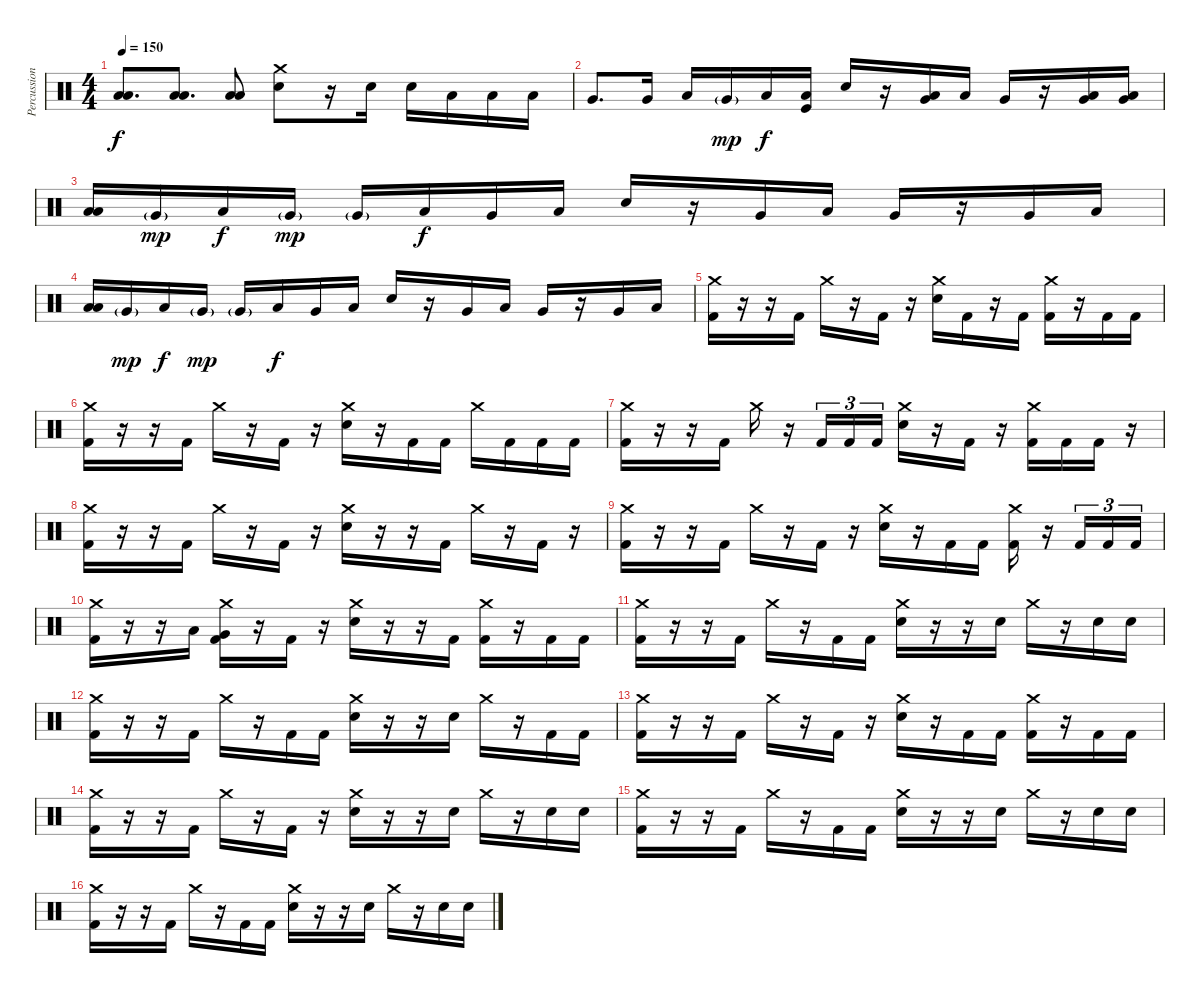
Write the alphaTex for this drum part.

\track ("Percussion" "Percussion") {instrument percussion}
\staff {score}
\articulation defaults
\ts (4 4)
\tempo 150
\clef neutral
\ks c
("Low Tom (hit)" "Low Floor Tom (hit)").8{d dy f} ("Low Tom (hit)" "Low Floor Tom (hit)").8{d} ("Low Tom (hit)" "Low Floor Tom (hit)").8 ("Crash medium (hit)" "Electric Snare (hit)").8 r.16 "Electric Snare (hit)".16 "Electric Snare (hit)".16 "Low Tom (hit)".16 "Low Tom (hit)".16 "Low Tom (hit)".16 |
"Very Low Tom (hit)".8{d} "Very Low Tom (hit)".16 "Low Tom (hit)".16 "Very Low Tom (hit)"{g}.16{dy mp} "Low Tom (hit)".16{dy f} ("Low Floor Tom (hit)" "Kick (hit)").16 "Electric Snare (hit)".16 r.16 ("Very Low Tom (hit)" "Low Floor Tom (hit)").16 "Low Tom (hit)".16 "Very Low Tom (hit)".16 r.16 ("Very Low Tom (hit)" "Low Floor Tom (hit)").16 ("Very Low Tom (hit)" "Low Floor Tom (hit)").16 |
("Low Tom (hit)" "Low Floor Tom (hit)").16 "Very Low Tom (hit)"{g}.16{dy mp} "Low Tom (hit)".16{dy f} "Very Low Tom (hit)"{g}.16{dy mp} "Very Low Tom (hit)"{g}.16 "Low Floor Tom (hit)".16{dy f} "Very Low Tom (hit)".16 "Low Floor Tom (hit)".16 "Electric Snare (hit)".16 r.16 "Very Low Tom (hit)".16 "Low Tom (hit)".16 "Very Low Tom (hit)".16 r.16 "Very Low Tom (hit)".16 "Low Tom (hit)".16 |
("Low Tom (hit)" "Low Floor Tom (hit)").16 "Very Low Tom (hit)"{g}.16{dy mp} "Low Tom (hit)".16{dy f} "Very Low Tom (hit)"{g}.16{dy mp} "Very Low Tom (hit)"{g}.16 "Low Floor Tom (hit)".16{dy f} "Very Low Tom (hit)".16 "Low Floor Tom (hit)".16 "Electric Snare (hit)".16 r.16 "Very Low Tom (hit)".16 "Low Tom (hit)".16 "Very Low Tom (hit)".16 r.16 "Very Low Tom (hit)".16 "Low Tom (hit)".16 |
("Crash medium (hit)" "Kick (hit) 2").16 r.16 r.16 "Kick (hit) 2".16 "Crash medium (hit)".16 r.16 "Kick (hit) 2".16 r.16 ("Crash medium (hit)" "Electric Snare (hit)").16 "Kick (hit) 2".16 r.16 "Kick (hit) 2".16 ("Crash medium (hit)" "Kick (hit) 2").16 r.16 "Kick (hit) 2".16 "Kick (hit) 2".16 |
("Crash medium (hit)" "Kick (hit) 2").16 r.16 r.16 "Kick (hit) 2".16 "Crash medium (hit)".16 r.16 "Kick (hit) 2".16 r.16 ("Crash medium (hit)" "Electric Snare (hit)").16 r.16 "Kick (hit) 2".16 "Kick (hit) 2".16 "Crash medium (hit)".16 "Kick (hit) 2".16 "Kick (hit) 2".16 "Kick (hit) 2".16 |
("Crash medium (hit)" "Kick (hit) 2").16 r.16 r.16 "Kick (hit) 2".16 "Crash medium (hit)".16 r.16 "Kick (hit) 2".16{tu (3 2)} "Kick (hit) 2".16{tu (3 2)} "Kick (hit) 2".16{tu (3 2)} ("Crash medium (hit)" "Electric Snare (hit)").16 r.16 "Kick (hit) 2".16 r.16 ("Crash medium (hit)" "Kick (hit) 2").16 "Kick (hit) 2".16 "Kick (hit) 2".16 r.16 |
("Crash medium (hit)" "Kick (hit) 2").16 r.16 r.16 "Kick (hit) 2".16 "Crash medium (hit)".16 r.16 "Kick (hit) 2".16 r.16 ("Crash medium (hit)" "Electric Snare (hit)").16 r.16 r.16 "Kick (hit) 2".16 "Crash medium (hit)".16 r.16 "Kick (hit) 2".16 r.16 |
("Crash medium (hit)" "Kick (hit) 2").16 r.16 r.16 "Kick (hit) 2".16 "Crash medium (hit)".16 r.16 "Kick (hit) 2".16 r.16 ("Crash medium (hit)" "Electric Snare (hit)").16 r.16 "Kick (hit) 2".16 "Kick (hit) 2".16 ("Crash medium (hit)" "Kick (hit) 2").16 r.16 "Kick (hit) 2".16{tu (3 2)} "Kick (hit) 2".16{tu (3 2)} "Kick (hit) 2".16{tu (3 2)} |
("Crash medium (hit)" "Kick (hit) 2").16 r.16 r.16 "Low Tom (hit)".16 ("Crash medium (hit)" "Very Low Tom (hit)" "Kick (hit) 2").16 r.16 "Kick (hit) 2".16 r.16 ("Crash medium (hit)" "Electric Snare (hit)").16 r.16 r.16 "Kick (hit) 2".16 ("Crash medium (hit)" "Kick (hit) 2").16 r.16 "Kick (hit) 2".16 "Kick (hit) 2".16 |
("Crash medium (hit)" "Kick (hit) 2").16 r.16 r.16 "Kick (hit) 2".16 "Crash medium (hit)".16 r.16 "Kick (hit) 2".16 "Kick (hit) 2".16 ("Crash medium (hit)" "Electric Snare (hit)").16 r.16 r.16 "Electric Snare (hit)".16 "Crash medium (hit)".16 r.16 "Electric Snare (hit)".16 "Electric Snare (hit)".16 |
("Crash medium (hit)" "Kick (hit) 2").16 r.16 r.16 "Kick (hit) 2".16 "Crash medium (hit)".16 r.16 "Kick (hit) 2".16 "Kick (hit) 2".16 ("Crash medium (hit)" "Electric Snare (hit)").16 r.16 r.16 "Electric Snare (hit)".16 "Crash medium (hit)".16 r.16 "Kick (hit) 2".16 "Kick (hit) 2".16 |
("Crash medium (hit)" "Kick (hit) 2").16 r.16 r.16 "Kick (hit) 2".16 "Crash medium (hit)".16 r.16 "Kick (hit) 2".16 r.16 ("Crash medium (hit)" "Electric Snare (hit)").16 r.16 "Kick (hit) 2".16 "Kick (hit) 2".16 ("Crash medium (hit)" "Kick (hit) 2").16 r.16 "Kick (hit) 2".16 "Kick (hit) 2".16 |
("Crash medium (hit)" "Kick (hit) 2").16 r.16 r.16 "Kick (hit) 2".16 "Crash medium (hit)".16 r.16 "Kick (hit) 2".16 r.16 ("Crash medium (hit)" "Electric Snare (hit)").16 r.16 r.16 "Electric Snare (hit)".16 "Crash medium (hit)".16 r.16 "Electric Snare (hit)".16 "Electric Snare (hit)".16 |
("Crash medium (hit)" "Kick (hit) 2").16 r.16 r.16 "Kick (hit) 2".16 "Crash medium (hit)".16 r.16 "Kick (hit) 2".16 "Kick (hit) 2".16 ("Crash medium (hit)" "Electric Snare (hit)").16 r.16 r.16 "Electric Snare (hit)".16 "Crash medium (hit)".16 r.16 "Electric Snare (hit)".16 "Electric Snare (hit)".16 |
("Crash medium (hit)" "Kick (hit) 2").16 r.16 r.16 "Kick (hit) 2".16 "Crash medium (hit)".16 r.16 "Kick (hit) 2".16 "Kick (hit) 2".16 ("Crash medium (hit)" "Electric Snare (hit)").16 r.16 r.16 "Electric Snare (hit)".16 "Crash medium (hit)".16 r.16 "Electric Snare (hit)".16 "Electric Snare (hit)".16
